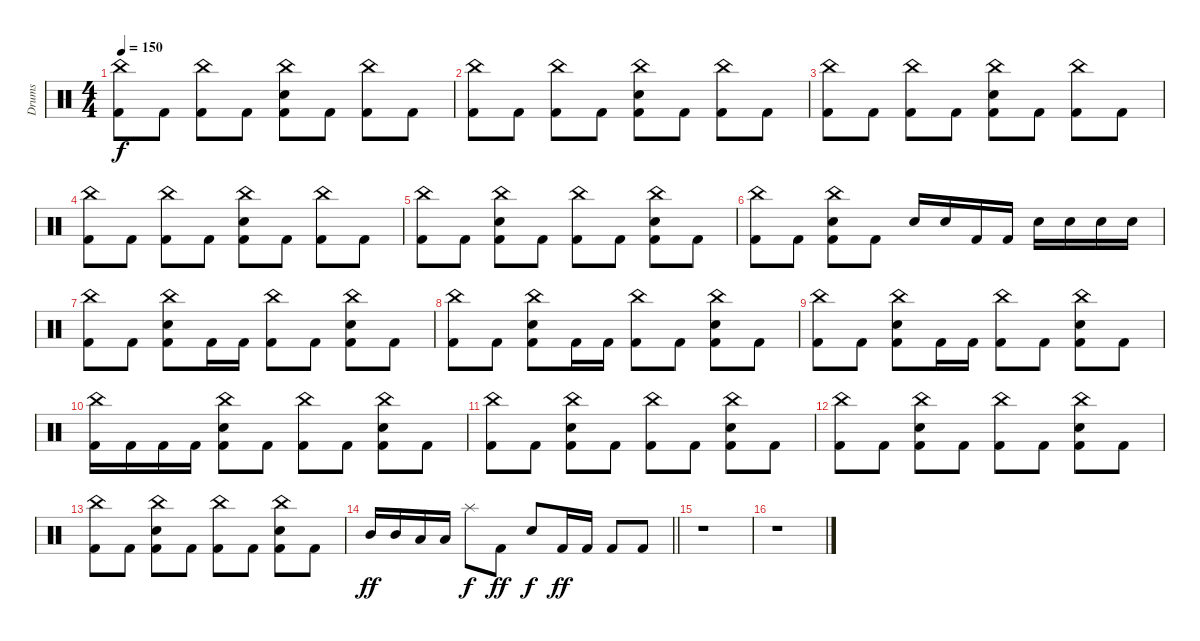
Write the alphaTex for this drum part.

\track ("Drums" "Drums") {instrument percussion}
\staff {score}
\articulation defaults
\ts (4 4)
\tempo 150
\clef neutral
\ks c
("China (hit)" "Kick (hit) 2").8{dy f} "Kick (hit) 2".8 ("China (hit)" "Kick (hit) 2").8 "Kick (hit) 2".8 ("China (hit)" "Electric Snare (hit)" "Kick (hit) 2").8 "Kick (hit) 2".8 ("China (hit)" "Kick (hit) 2").8 "Kick (hit) 2".8 |
("China (hit)" "Kick (hit) 2").8 "Kick (hit) 2".8 ("China (hit)" "Kick (hit) 2").8 "Kick (hit) 2".8 ("China (hit)" "Electric Snare (hit)" "Kick (hit) 2").8 "Kick (hit) 2".8 ("China (hit)" "Kick (hit) 2").8 "Kick (hit) 2".8 |
("China (hit)" "Kick (hit) 2").8 "Kick (hit) 2".8 ("China (hit)" "Kick (hit) 2").8 "Kick (hit) 2".8 ("China (hit)" "Electric Snare (hit)" "Kick (hit) 2").8 "Kick (hit) 2".8 ("China (hit)" "Kick (hit) 2").8 "Kick (hit) 2".8 |
("China (hit)" "Kick (hit) 2").8 "Kick (hit) 2".8 ("China (hit)" "Kick (hit) 2").8 "Kick (hit) 2".8 ("China (hit)" "Electric Snare (hit)" "Kick (hit) 2").8 "Kick (hit) 2".8 ("China (hit)" "Kick (hit) 2").8 "Kick (hit) 2".8 |
("China (hit)" "Kick (hit) 2").8 "Kick (hit) 2".8 ("China (hit)" "Electric Snare (hit)" "Kick (hit) 2").8 "Kick (hit) 2".8 ("China (hit)" "Kick (hit) 2").8 "Kick (hit) 2".8 ("China (hit)" "Electric Snare (hit)" "Kick (hit) 2").8 "Kick (hit) 2".8 |
("China (hit)" "Kick (hit) 2").8 "Kick (hit) 2".8 ("China (hit)" "Electric Snare (hit)" "Kick (hit) 2").8 "Kick (hit) 2".8 "Electric Snare (hit)".16 "Electric Snare (hit)".16 "Kick (hit) 2".16 "Kick (hit) 2".16 "Electric Snare (hit)".16 "Electric Snare (hit)".16 "Electric Snare (hit)".16 "Electric Snare (hit)".16 |
("China (hit)" "Kick (hit) 2").8 "Kick (hit) 2".8 ("China (hit)" "Electric Snare (hit)" "Kick (hit) 2").8 "Kick (hit) 2".16 "Kick (hit) 2".16 ("China (hit)" "Kick (hit) 2").8 "Kick (hit) 2".8 ("China (hit)" "Electric Snare (hit)" "Kick (hit) 2").8 "Kick (hit) 2".8 |
("China (hit)" "Kick (hit) 2").8 "Kick (hit) 2".8 ("China (hit)" "Electric Snare (hit)" "Kick (hit) 2").8 "Kick (hit) 2".16 "Kick (hit) 2".16 ("China (hit)" "Kick (hit) 2").8 "Kick (hit) 2".8 ("China (hit)" "Electric Snare (hit)" "Kick (hit) 2").8 "Kick (hit) 2".8 |
("China (hit)" "Kick (hit) 2").8 "Kick (hit) 2".8 ("China (hit)" "Electric Snare (hit)" "Kick (hit) 2").8 "Kick (hit) 2".16 "Kick (hit) 2".16 ("China (hit)" "Kick (hit) 2").8 "Kick (hit) 2".8 ("China (hit)" "Electric Snare (hit)" "Kick (hit) 2").8 "Kick (hit) 2".8 |
("China (hit)" "Kick (hit) 2").16 "Kick (hit) 2".16 "Kick (hit) 2".16 "Kick (hit) 2".16 ("China (hit)" "Electric Snare (hit)" "Kick (hit) 2").8 "Kick (hit) 2".8 ("China (hit)" "Kick (hit) 2").8 "Kick (hit) 2".8 ("China (hit)" "Electric Snare (hit)" "Kick (hit) 2").8 "Kick (hit) 2".8 |
("China (hit)" "Kick (hit) 2").8 "Kick (hit) 2".8 ("China (hit)" "Electric Snare (hit)" "Kick (hit) 2").8 "Kick (hit) 2".8 ("China (hit)" "Kick (hit) 2").8 "Kick (hit) 2".8 ("China (hit)" "Electric Snare (hit)" "Kick (hit) 2").8 "Kick (hit) 2".8 |
("China (hit)" "Kick (hit) 2").8 "Kick (hit) 2".8 ("China (hit)" "Electric Snare (hit)" "Kick (hit) 2").8 "Kick (hit) 2".8 ("China (hit)" "Kick (hit) 2").8 "Kick (hit) 2".8 ("China (hit)" "Electric Snare (hit)" "Kick (hit) 2").8 "Kick (hit) 2".8 |
("China (hit)" "Kick (hit) 2").8 "Kick (hit) 2".8 ("China (hit)" "Electric Snare (hit)" "Kick (hit) 2").8 "Kick (hit) 2".8 ("China (hit)" "Kick (hit) 2").8 "Kick (hit) 2".8 ("China (hit)" "Electric Snare (hit)" "Kick (hit) 2").8 "Kick (hit) 2".8 |
\barLineRight lightlight "Mid Tom (hit)".16{dy ff} "Mid Tom (hit)".16 "Low Tom (hit)".16 "Low Tom (hit)".16 "Splash (hit)".8{dy f} "Kick (hit) 2".8{dy ff} "Electric Snare (hit)".8{dy f} "Kick (hit) 2".16{dy ff} "Kick (hit) 2".16 "Kick (hit) 2".8 "Kick (hit) 2".8
|
r.1 |
r.1
